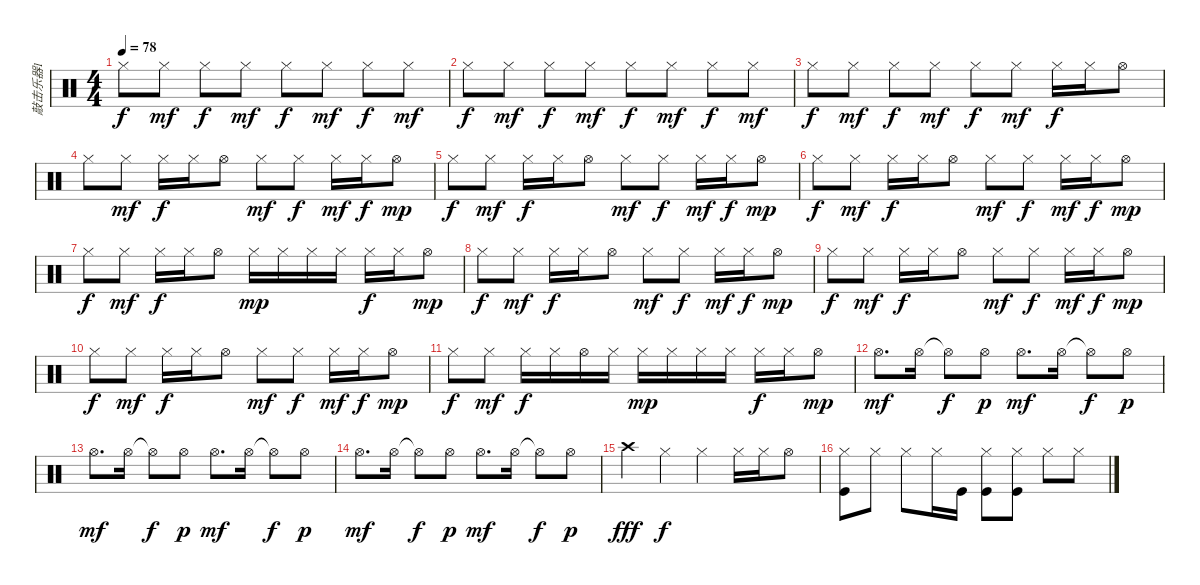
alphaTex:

\track ("敲击乐器1" "敲击乐器1") {instrument percussion}
\staff {score}
\articulation defaults
\ts (4 4)
\tempo 78
\clef neutral
\ks c "Hi-Hat (closed)".8{dy f} "Hi-Hat (closed)".8{dy mf} "Hi-Hat (closed)".8{dy f} "Hi-Hat (closed)".8{dy mf} "Hi-Hat (closed)".8{dy f} "Hi-Hat (closed)".8{dy mf} "Hi-Hat (closed)".8{dy f} "Hi-Hat (closed)".8{dy mf}
|
"Hi-Hat (closed)".8{dy f} "Hi-Hat (closed)".8{dy mf} "Hi-Hat (closed)".8{dy f} "Hi-Hat (closed)".8{dy mf} "Hi-Hat (closed)".8{dy f} "Hi-Hat (closed)".8{dy mf} "Hi-Hat (closed)".8{dy f} "Hi-Hat (closed)".8{dy mf} |
"Hi-Hat (closed)".8{dy f} "Hi-Hat (closed)".8{dy mf} "Hi-Hat (closed)".8{dy f} "Hi-Hat (closed)".8{dy mf} "Hi-Hat (closed)".8{dy f} "Hi-Hat (closed)".8{dy mf} "Hi-Hat (closed)".16{dy f} "Hi-Hat (closed)".16 "Hi-Hat (open)".8 |
"Hi-Hat (closed)".8 "Hi-Hat (closed)".8{dy mf} "Hi-Hat (closed)".16{dy f} "Hi-Hat (closed)".16 "Hi-Hat (open)".8 "Hi-Hat (closed)".8{dy mf} "Hi-Hat (closed)".8{dy f} "Hi-Hat (closed)".16{dy mf} "Hi-Hat (closed)".16{dy f} "Hi-Hat (open)".8{dy mp} |
"Hi-Hat (closed)".8{dy f} "Hi-Hat (closed)".8{dy mf} "Hi-Hat (closed)".16{dy f} "Hi-Hat (closed)".16 "Hi-Hat (open)".8 "Hi-Hat (closed)".8{dy mf} "Hi-Hat (closed)".8{dy f} "Hi-Hat (closed)".16{dy mf} "Hi-Hat (closed)".16{dy f} "Hi-Hat (open)".8{dy mp} |
"Hi-Hat (closed)".8{dy f} "Hi-Hat (closed)".8{dy mf} "Hi-Hat (closed)".16{dy f} "Hi-Hat (closed)".16 "Hi-Hat (open)".8 "Hi-Hat (closed)".8{dy mf} "Hi-Hat (closed)".8{dy f} "Hi-Hat (closed)".16{dy mf} "Hi-Hat (closed)".16{dy f} "Hi-Hat (open)".8{dy mp} |
"Hi-Hat (closed)".8{dy f} "Hi-Hat (closed)".8{dy mf} "Hi-Hat (closed)".16{dy f} "Hi-Hat (closed)".16 "Hi-Hat (open)".8 "Hi-Hat (closed)".16{dy mp} "Hi-Hat (closed)".16 "Hi-Hat (closed)".16 "Hi-Hat (closed)".16 "Hi-Hat (closed)".16{dy f} "Hi-Hat (closed)".16 "Hi-Hat (open)".8{dy mp} |
"Hi-Hat (closed)".8{dy f} "Hi-Hat (closed)".8{dy mf} "Hi-Hat (closed)".16{dy f} "Hi-Hat (closed)".16 "Hi-Hat (open)".8 "Hi-Hat (closed)".8{dy mf} "Hi-Hat (closed)".8{dy f} "Hi-Hat (closed)".16{dy mf} "Hi-Hat (closed)".16{dy f} "Hi-Hat (open)".8{dy mp} |
"Hi-Hat (closed)".8{dy f} "Hi-Hat (closed)".8{dy mf} "Hi-Hat (closed)".16{dy f} "Hi-Hat (closed)".16 "Hi-Hat (open)".8 "Hi-Hat (closed)".8{dy mf} "Hi-Hat (closed)".8{dy f} "Hi-Hat (closed)".16{dy mf} "Hi-Hat (closed)".16{dy f} "Hi-Hat (open)".8{dy mp} |
"Hi-Hat (closed)".8{dy f} "Hi-Hat (closed)".8{dy mf} "Hi-Hat (closed)".16{dy f} "Hi-Hat (closed)".16 "Hi-Hat (open)".8 "Hi-Hat (closed)".8{dy mf} "Hi-Hat (closed)".8{dy f} "Hi-Hat (closed)".16{dy mf} "Hi-Hat (closed)".16{dy f} "Hi-Hat (open)".8{dy mp} |
"Hi-Hat (closed)".8{dy f} "Hi-Hat (closed)".8{dy mf} "Hi-Hat (closed)".16{dy f} "Hi-Hat (closed)".16 "Hi-Hat (open)".16 "Hi-Hat (closed)".16 "Hi-Hat (closed)".16{dy mp} "Hi-Hat (closed)".16 "Hi-Hat (closed)".16 "Hi-Hat (closed)".16 "Hi-Hat (closed)".16{dy f} "Hi-Hat (closed)".16 "Hi-Hat (open)".8{dy mp} |
"Hi-Hat (open)".8{d dy mf} "Hi-Hat (open)".16 "Hi-Hat (open)"{t}.8{dy f} "Hi-Hat (open)".8{dy p} "Hi-Hat (open)".8{d dy mf} "Hi-Hat (open)".16 "Hi-Hat (open)"{t}.8{dy f} "Hi-Hat (open)".8{dy p} |
"Hi-Hat (open)".8{d dy mf} "Hi-Hat (open)".16 "Hi-Hat (open)"{t}.8{dy f} "Hi-Hat (open)".8{dy p} "Hi-Hat (open)".8{d dy mf} "Hi-Hat (open)".16 "Hi-Hat (open)"{t}.8{dy f} "Hi-Hat (open)".8{dy p} |
"Hi-Hat (open)".8{d dy mf} "Hi-Hat (open)".16 "Hi-Hat (open)"{t}.8{dy f} "Hi-Hat (open)".8{dy p} "Hi-Hat (open)".8{d dy mf} "Hi-Hat (open)".16 "Hi-Hat (open)"{t}.8{dy f} "Hi-Hat (open)".8{dy p} |
"Crash high (hit)".4{dy fff} "Hi-Hat (closed)".4{dy f} "Hi-Hat (closed)".4 "Hi-Hat (closed)".16 "Hi-Hat (closed)".16 "Hi-Hat (open)".8 |
("Hi-Hat (closed)" "Kick (hit)").8 "Hi-Hat (closed)".8 "Hi-Hat (closed)".8 "Hi-Hat (closed)".16 "Kick (hit)".16 ("Hi-Hat (closed)" "Kick (hit)").8 ("Hi-Hat (closed)" "Kick (hit)").8 "Hi-Hat (closed)".8 "Hi-Hat (closed)".8
